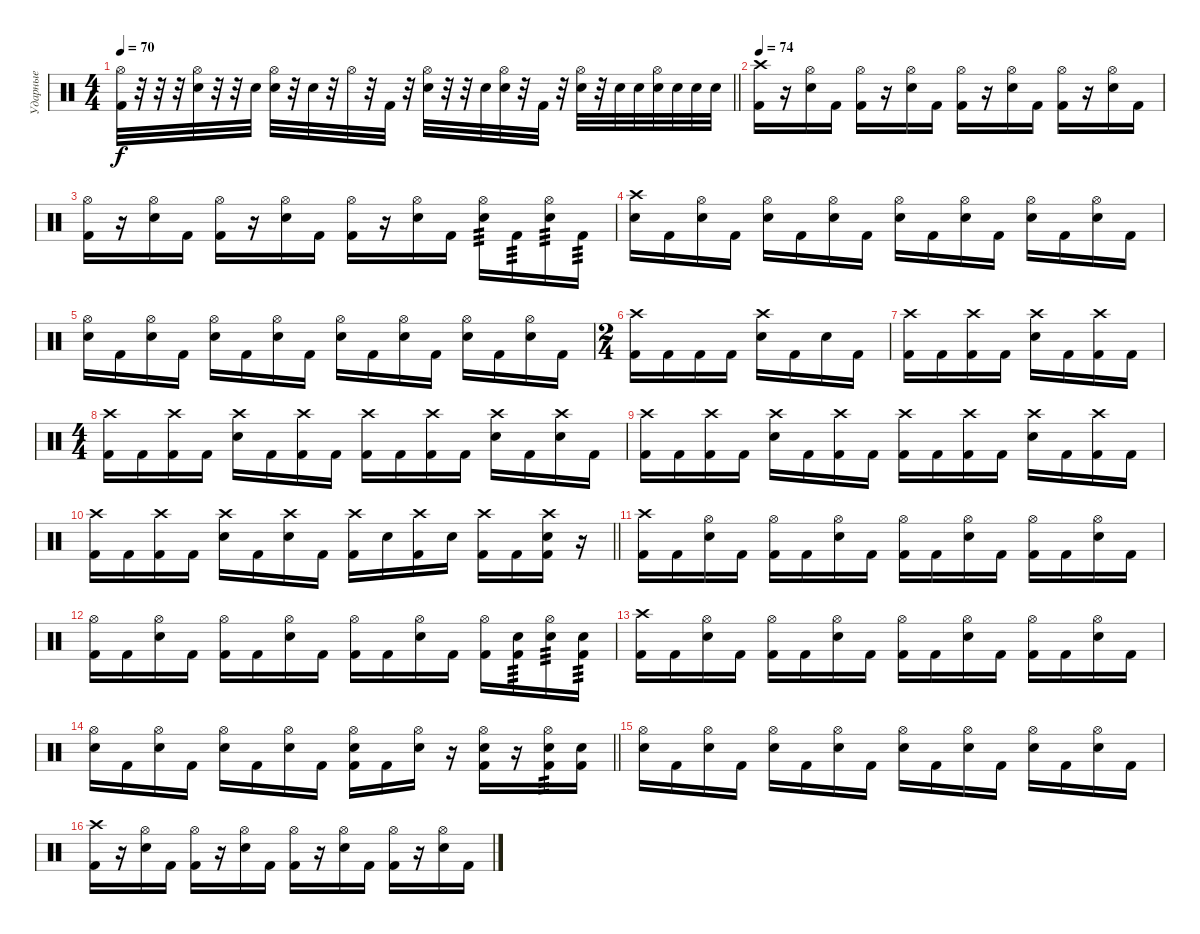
\track ("Ударные" "Ударные") {instrument percussion}
\staff {score}
\articulation defaults
\ts (4 4)
\tempo 70
\clef neutral
\barLineRight lightlight
\ks c
("Hi-Hat (open)" "Kick (hit) 2").32{dy f} r.32 r.32 r.32 ("Hi-Hat (open)" "Electric Snare (hit)").32 r.32 r.32 "Electric Snare (hit)".32 ("Hi-Hat (open)" "Electric Snare (hit)").32 r.32 "Electric Snare (hit)".32 r.32 "Hi-Hat (open)".32 r.32 "Kick (hit) 2".32 r.32 ("Hi-Hat (open)" "Electric Snare (hit)").32 r.32 r.32 "Electric Snare (hit)".32 ("Hi-Hat (open)" "Electric Snare (hit)").32 r.32 "Kick (hit) 2".32 r.32 ("Hi-Hat (open)" "Electric Snare (hit)").32 r.32 "Electric Snare (hit)".32 "Electric Snare (hit)".32 ("Hi-Hat (open)" "Electric Snare (hit)").32 "Electric Snare (hit)".32 "Electric Snare (hit)".32 "Electric Snare (hit)".32 |
\section ("" "")
\tempo 74
("Crash high (hit)" "Kick (hit) 2").16 r.16 ("Hi-Hat (open)" "Electric Snare (hit)").16 "Kick (hit) 2".16 ("Hi-Hat (open)" "Kick (hit) 2").16 r.16 ("Hi-Hat (open)" "Electric Snare (hit)").16 "Kick (hit) 2".16 ("Hi-Hat (open)" "Kick (hit) 2").16 r.16 ("Hi-Hat (open)" "Electric Snare (hit)").16 "Kick (hit) 2".16 ("Hi-Hat (open)" "Kick (hit) 2").16 r.16 ("Hi-Hat (open)" "Electric Snare (hit)").16 "Kick (hit) 2".16 |
("Hi-Hat (open)" "Kick (hit) 2").16 r.16 ("Hi-Hat (open)" "Electric Snare (hit)").16 "Kick (hit) 2".16 ("Hi-Hat (open)" "Kick (hit) 2").16 r.16 ("Hi-Hat (open)" "Electric Snare (hit)").16 "Kick (hit) 2".16 ("Hi-Hat (open)" "Kick (hit) 2").16 r.16 ("Hi-Hat (open)" "Electric Snare (hit)").16 "Kick (hit) 2".16 ("Hi-Hat (open)" "Electric Snare (hit)").16{tp 3} "Kick (hit) 2".16{tp 3} ("Hi-Hat (open)" "Electric Snare (hit)").16{tp 3} "Kick (hit) 2".16{tp 3} |
("Crash high (hit)" "Electric Snare (hit)").16 "Kick (hit) 2".16 ("Hi-Hat (open)" "Electric Snare (hit)").16 "Kick (hit) 2".16 ("Hi-Hat (open)" "Electric Snare (hit)").16 "Kick (hit) 2".16 ("Hi-Hat (open)" "Electric Snare (hit)").16 "Kick (hit) 2".16 ("Hi-Hat (open)" "Electric Snare (hit)").16 "Kick (hit) 2".16 ("Hi-Hat (open)" "Electric Snare (hit)").16 "Kick (hit) 2".16 ("Hi-Hat (open)" "Electric Snare (hit)").16 "Kick (hit) 2".16 ("Hi-Hat (open)" "Electric Snare (hit)").16 "Kick (hit) 2".16 |
("Hi-Hat (open)" "Electric Snare (hit)").16 "Kick (hit) 2".16 ("Hi-Hat (open)" "Electric Snare (hit)").16 "Kick (hit) 2".16 ("Hi-Hat (open)" "Electric Snare (hit)").16 "Kick (hit) 2".16 ("Hi-Hat (open)" "Electric Snare (hit)").16 "Kick (hit) 2".16 ("Hi-Hat (open)" "Electric Snare (hit)").16 "Kick (hit) 2".16 ("Hi-Hat (open)" "Electric Snare (hit)").16 "Kick (hit) 2".16 ("Hi-Hat (open)" "Electric Snare (hit)").16 "Kick (hit) 2".16 ("Hi-Hat (open)" "Electric Snare (hit)").16 "Kick (hit) 2".16 |
\ts (2 4)
("Crash high (hit)" "Kick (hit) 2").16 "Kick (hit) 2".16 "Kick (hit) 2".16 "Kick (hit) 2".16 ("Crash high (hit)" "Electric Snare (hit)").16 "Kick (hit) 2".16 "Electric Snare (hit)".16 "Kick (hit) 2".16 |
("Crash high (hit)" "Kick (hit) 2").16 "Kick (hit) 2".16 ("Crash high (hit)" "Kick (hit) 2").16 "Kick (hit) 2".16 ("Crash high (hit)" "Electric Snare (hit)").16 "Kick (hit) 2".16 ("Crash high (hit)" "Kick (hit) 2").16 "Kick (hit) 2".16 |
\ts (4 4)
("Crash high (hit)" "Kick (hit) 2").16 "Kick (hit) 2".16 ("Crash high (hit)" "Kick (hit) 2").16 "Kick (hit) 2".16 ("Crash high (hit)" "Electric Snare (hit)").16 "Kick (hit) 2".16 ("Crash high (hit)" "Kick (hit) 2").16 "Kick (hit) 2".16 ("Crash high (hit)" "Kick (hit) 2").16 "Kick (hit) 2".16 ("Crash high (hit)" "Kick (hit) 2").16 "Kick (hit) 2".16 ("Crash high (hit)" "Electric Snare (hit)").16 "Kick (hit) 2".16 ("Crash high (hit)" "Electric Snare (hit)").16 "Kick (hit) 2".16 |
("Crash high (hit)" "Kick (hit) 2").16 "Kick (hit) 2".16 ("Crash high (hit)" "Kick (hit) 2").16 "Kick (hit) 2".16 ("Crash high (hit)" "Electric Snare (hit)").16 "Kick (hit) 2".16 ("Crash high (hit)" "Kick (hit) 2").16 "Kick (hit) 2".16 ("Crash high (hit)" "Kick (hit) 2").16 "Kick (hit) 2".16 ("Crash high (hit)" "Kick (hit) 2").16 "Kick (hit) 2".16 ("Crash high (hit)" "Electric Snare (hit)").16 "Kick (hit) 2".16 ("Crash high (hit)" "Kick (hit) 2").16 "Kick (hit) 2".16 |
\barLineRight lightlight
("Crash high (hit)" "Kick (hit) 2").16 "Kick (hit) 2".16 ("Crash high (hit)" "Kick (hit) 2").16 "Kick (hit) 2".16 ("Crash high (hit)" "Electric Snare (hit)").16 "Kick (hit) 2".16 ("Crash high (hit)" "Electric Snare (hit)").16 "Kick (hit) 2".16 ("Crash high (hit)" "Kick (hit) 2").16 "Electric Snare (hit)".16 ("Crash high (hit)" "Kick (hit) 2").16 "Electric Snare (hit)".16 ("Crash high (hit)" "Kick (hit) 2").16 "Kick (hit) 2".16 ("Crash high (hit)" "Electric Snare (hit)" "Kick (hit) 2").16 r.16 |
("Crash high (hit)" "Kick (hit) 2").16 "Kick (hit) 2".16 ("Hi-Hat (open)" "Electric Snare (hit)").16 "Kick (hit) 2".16 ("Hi-Hat (open)" "Kick (hit) 2").16 "Kick (hit) 2".16 ("Hi-Hat (open)" "Electric Snare (hit)").16 "Kick (hit) 2".16 ("Hi-Hat (open)" "Kick (hit) 2").16 "Kick (hit) 2".16 ("Hi-Hat (open)" "Electric Snare (hit)").16 "Kick (hit) 2".16 ("Hi-Hat (open)" "Kick (hit) 2").16 "Kick (hit) 2".16 ("Hi-Hat (open)" "Electric Snare (hit)").16 "Kick (hit) 2".16 |
("Hi-Hat (open)" "Kick (hit) 2").16 "Kick (hit) 2".16 ("Hi-Hat (open)" "Electric Snare (hit)").16 "Kick (hit) 2".16 ("Hi-Hat (open)" "Kick (hit) 2").16 "Kick (hit) 2".16 ("Hi-Hat (open)" "Electric Snare (hit)").16 "Kick (hit) 2".16 ("Hi-Hat (open)" "Kick (hit) 2").16 "Kick (hit) 2".16 ("Hi-Hat (open)" "Electric Snare (hit)").16 "Kick (hit) 2".16 ("Hi-Hat (open)" "Kick (hit) 2").16 ("Electric Snare (hit)" "Kick (hit) 2").16{tp 3} ("Hi-Hat (open)" "Electric Snare (hit)").16{tp 3} ("Electric Snare (hit)" "Kick (hit) 2").16{tp 3} |
("Crash high (hit)" "Kick (hit) 2").16 "Kick (hit) 2".16 ("Hi-Hat (open)" "Electric Snare (hit)").16 "Kick (hit) 2".16 ("Hi-Hat (open)" "Kick (hit) 2").16 "Kick (hit) 2".16 ("Hi-Hat (open)" "Electric Snare (hit)").16 "Kick (hit) 2".16 ("Hi-Hat (open)" "Kick (hit) 2").16 "Kick (hit) 2".16 ("Hi-Hat (open)" "Electric Snare (hit)").16 "Kick (hit) 2".16 ("Hi-Hat (open)" "Kick (hit) 2").16 "Kick (hit) 2".16 ("Hi-Hat (open)" "Electric Snare (hit)").16 "Kick (hit) 2".16 |
\barLineRight lightlight
("Hi-Hat (open)" "Electric Snare (hit)").16 "Kick (hit) 2".16 ("Hi-Hat (open)" "Electric Snare (hit)").16 "Kick (hit) 2".16 ("Hi-Hat (open)" "Electric Snare (hit)").16 "Kick (hit) 2".16 ("Hi-Hat (open)" "Electric Snare (hit)").16 "Kick (hit) 2".16 ("Hi-Hat (open)" "Electric Snare (hit)" "Kick (hit) 2").16 "Kick (hit) 2".16 ("Hi-Hat (open)" "Electric Snare (hit)").16 r.16 ("Hi-Hat (open)" "Electric Snare (hit)" "Kick (hit) 2").16 r.16 ("Hi-Hat (open)" "Electric Snare (hit)" "Kick (hit) 2").16{tp 3} ("Electric Snare (hit)" "Kick (hit) 2").16 |
("Hi-Hat (open)" "Electric Snare (hit)").16 "Kick (hit) 2".16 ("Hi-Hat (open)" "Electric Snare (hit)").16 "Kick (hit) 2".16 ("Hi-Hat (open)" "Electric Snare (hit)").16 "Kick (hit) 2".16 ("Hi-Hat (open)" "Electric Snare (hit)").16 "Kick (hit) 2".16 ("Hi-Hat (open)" "Electric Snare (hit)").16 "Kick (hit) 2".16 ("Hi-Hat (open)" "Electric Snare (hit)").16 "Kick (hit) 2".16 ("Hi-Hat (open)" "Electric Snare (hit)").16 "Kick (hit) 2".16 ("Hi-Hat (open)" "Electric Snare (hit)").16 "Kick (hit) 2".16 |
("Crash high (hit)" "Kick (hit) 2").16 r.16 ("Hi-Hat (open)" "Electric Snare (hit)").16 "Kick (hit) 2".16 ("Hi-Hat (open)" "Kick (hit) 2").16 r.16 ("Hi-Hat (open)" "Electric Snare (hit)").16 "Kick (hit) 2".16 ("Hi-Hat (open)" "Kick (hit) 2").16 r.16 ("Hi-Hat (open)" "Electric Snare (hit)").16 "Kick (hit) 2".16 ("Hi-Hat (open)" "Kick (hit) 2").16 r.16 ("Hi-Hat (open)" "Electric Snare (hit)").16 "Kick (hit) 2".16
